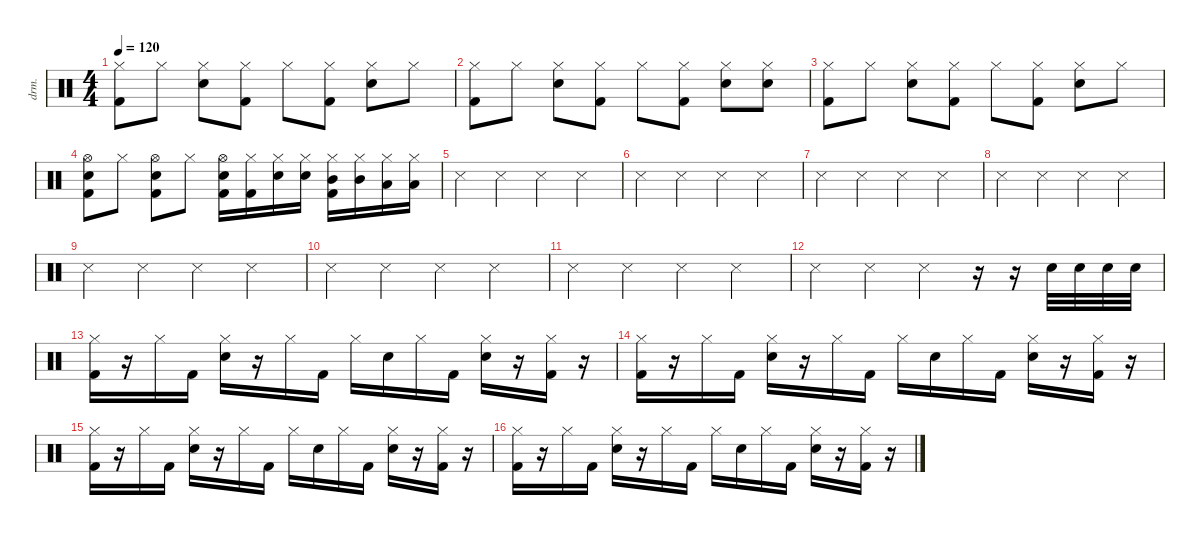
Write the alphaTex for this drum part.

\defaultSystemsLayout 4
\hideDynamics
\bracketExtendMode nobrackets
\otherSystemsTrackNameOrientation horizontal
\track ("Drumkit" "drm.") {instrument percussion}
\staff {score}
\articulation defaults
\ts (4 4)
\tempo 120
\clef neutral
\ks c
("Hi-Hat (closed)" "Kick (hit) 2").8{dy mf beam Down} "Hi-Hat (closed)".8{beam Down} ("Hi-Hat (closed)" "Snare (hit) 2").8{beam Down} ("Hi-Hat (closed)" "Kick (hit) 2").8{beam Down} "Hi-Hat (closed)".8{beam Down} ("Hi-Hat (closed)" "Kick (hit) 2").8{beam Down} ("Hi-Hat (closed)" "Snare (hit) 2").8{beam Down} "Hi-Hat (closed)".8{beam Down} |
("Hi-Hat (closed)" "Kick (hit) 2").8{beam Down} "Hi-Hat (closed)".8{beam Down} ("Hi-Hat (closed)" "Snare (hit) 2").8{beam Down} ("Hi-Hat (closed)" "Kick (hit) 2").8{beam Down} "Hi-Hat (closed)".8{beam Down} ("Hi-Hat (closed)" "Kick (hit) 2").8{beam Down} ("Hi-Hat (closed)" "Snare (hit) 2").8{beam Down} ("Snare (hit) 2" "Hi-Hat (closed)").8{beam Down} |
("Hi-Hat (closed)" "Kick (hit) 2").8{beam Down} "Hi-Hat (closed)".8{beam Down} ("Hi-Hat (closed)" "Snare (hit) 2").8{beam Down} ("Hi-Hat (closed)" "Kick (hit) 2").8{beam Down} "Hi-Hat (closed)".8{beam Down} ("Hi-Hat (closed)" "Kick (hit) 2").8{beam Down} ("Hi-Hat (closed)" "Snare (hit) 2").8{beam Down} "Hi-Hat (closed)".8{beam Down} |
("Hi-Hat (open)" "Snare (hit) 2" "Kick (hit) 2").8{beam Down} "Hi-Hat (closed)".8{beam Down} ("Hi-Hat (open)" "Snare (hit) 2" "Kick (hit) 2").8{beam Down} "Hi-Hat (closed)".8{beam Down} ("Hi-Hat (open)" "Kick (hit) 2" "Snare (hit) 2").16{beam Down} ("Hi-Hat (closed)" "Kick (hit) 2").16{beam Down} ("Hi-Hat (closed)" "Snare (hit) 2").16{beam Down} ("Snare (hit) 2" "Hi-Hat (closed)").16{beam Down} ("Mid Tom (hit)" "Kick (hit) 2" "Hi-Hat (closed)").16{beam Down} ("Mid Tom (hit)" "Hi-Hat (closed)").16{beam Down} ("Low Tom (hit)" "Hi-Hat (closed)").16{beam Down} ("Low Tom (hit)" "Hi-Hat (closed)").16{beam Down} |
"Snare (side stick) 3".4{beam Down} "Snare (side stick) 3".4{beam Down} "Snare (side stick) 3".4{beam Down} "Snare (side stick) 3".4{beam Down} |
"Snare (side stick) 3".4{beam Down} "Snare (side stick) 3".4{beam Down} "Snare (side stick) 3".4{beam Down} "Snare (side stick) 3".4{beam Down} |
"Snare (side stick) 3".4{beam Down} "Snare (side stick) 3".4{beam Down} "Snare (side stick) 3".4{beam Down} "Snare (side stick) 3".4{beam Down} |
"Snare (side stick) 3".4{beam Down} "Snare (side stick) 3".4{beam Down} "Snare (side stick) 3".4{beam Down} "Snare (side stick) 3".4{beam Down} |
"Snare (side stick) 3".4{beam Down} "Snare (side stick) 3".4{beam Down} "Snare (side stick) 3".4{beam Down} "Snare (side stick) 3".4{beam Down} |
"Snare (side stick) 3".4{beam Down} "Snare (side stick) 3".4{beam Down} "Snare (side stick) 3".4{beam Down} "Snare (side stick) 3".4{beam Down} |
"Snare (side stick) 3".4{beam Down} "Snare (side stick) 3".4{beam Down} "Snare (side stick) 3".4{beam Down} "Snare (side stick) 3".4{beam Down} |
"Snare (side stick) 3".4{beam Down} "Snare (side stick) 3".4{beam Down} "Snare (side stick) 3".4{beam Down} r.16{beam Down} r.16{beam Down} "Snare (hit) 2".32{beam Down} "Snare (hit) 2".32{beam Down} "Snare (hit) 2".32{beam Down} "Snare (hit) 2".32{beam Down} |
("Hi-Hat (closed)" "Kick (hit) 2").16{beam Down} r.16{beam Down} "Hi-Hat (closed)".16{beam Down} "Kick (hit) 2".16{beam Down} ("Hi-Hat (closed)" "Snare (hit) 2").16{beam Down} r.16{beam Down} "Hi-Hat (closed)".16{beam Down} "Kick (hit) 2".16{beam Down} "Hi-Hat (closed)".16{beam Down} "Snare (hit) 2".16{beam Down} "Hi-Hat (closed)".16{beam Down} "Kick (hit) 2".16{beam Down} ("Hi-Hat (closed)" "Snare (hit) 2").16{beam Down} r.16{beam Down} ("Hi-Hat (closed)" "Kick (hit) 2").16{beam Down} r.16{beam Down} |
("Hi-Hat (closed)" "Kick (hit) 2").16{beam Down} r.16{beam Down} "Hi-Hat (closed)".16{beam Down} "Kick (hit) 2".16{beam Down} ("Hi-Hat (closed)" "Snare (hit) 2").16{beam Down} r.16{beam Down} "Hi-Hat (closed)".16{beam Down} "Kick (hit) 2".16{beam Down} "Hi-Hat (closed)".16{beam Down} "Snare (hit) 2".16{beam Down} "Hi-Hat (closed)".16{beam Down} "Kick (hit) 2".16{beam Down} ("Hi-Hat (closed)" "Snare (hit) 2").16{beam Down} r.16{beam Down} ("Hi-Hat (closed)" "Kick (hit) 2").16{beam Down} r.16{beam Down} |
("Hi-Hat (closed)" "Kick (hit) 2").16{beam Down} r.16{beam Down} "Hi-Hat (closed)".16{beam Down} "Kick (hit) 2".16{beam Down} ("Hi-Hat (closed)" "Snare (hit) 2").16{beam Down} r.16{beam Down} "Hi-Hat (closed)".16{beam Down} "Kick (hit) 2".16{beam Down} "Hi-Hat (closed)".16{beam Down} "Snare (hit) 2".16{beam Down} "Hi-Hat (closed)".16{beam Down} "Kick (hit) 2".16{beam Down} ("Hi-Hat (closed)" "Snare (hit) 2").16{beam Down} r.16{beam Down} ("Hi-Hat (closed)" "Kick (hit) 2").16{beam Down} r.16{beam Down} |
("Hi-Hat (closed)" "Kick (hit) 2").16{beam Down} r.16{beam Down} "Hi-Hat (closed)".16{beam Down} "Kick (hit) 2".16{beam Down} ("Hi-Hat (closed)" "Snare (hit) 2").16{beam Down} r.16{beam Down} "Hi-Hat (closed)".16{beam Down} "Kick (hit) 2".16{beam Down} "Hi-Hat (closed)".16{beam Down} "Snare (hit) 2".16{beam Down} "Hi-Hat (closed)".16{beam Down} "Kick (hit) 2".16{beam Down} ("Hi-Hat (closed)" "Snare (hit) 2").16{beam Down} r.16{beam Down} ("Hi-Hat (closed)" "Kick (hit) 2").16{beam Down} r.16{beam Down}
